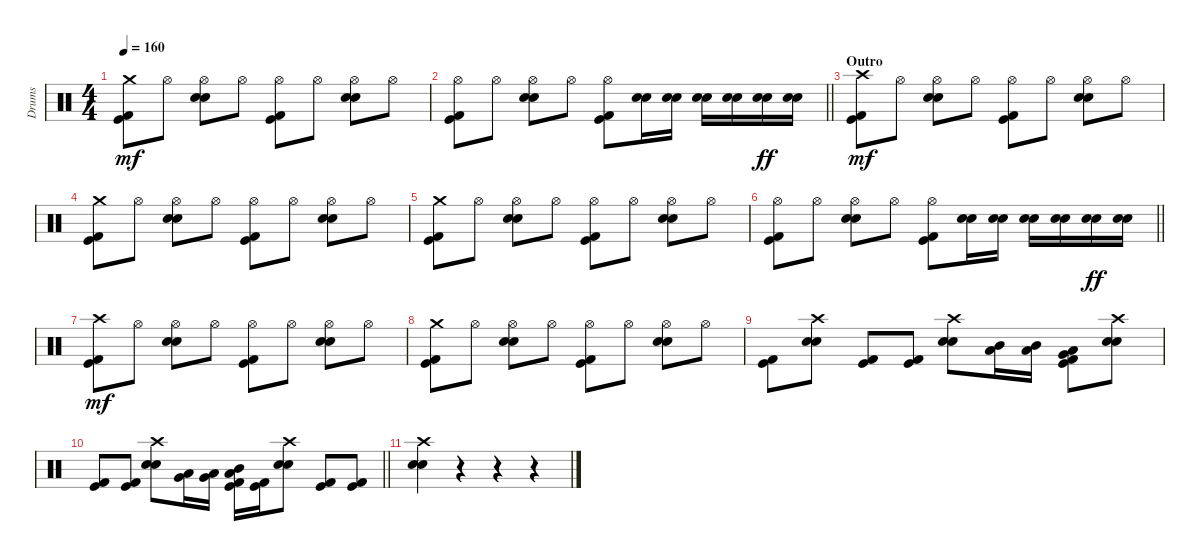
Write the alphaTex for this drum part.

\track ("Drums" "Drums") {instrument percussion}
\staff {score}
\articulation defaults
\ts (4 4)
\tempo 160
\clef neutral
\ks c
("Crash medium (hit)" "Kick (hit) 2" "Kick (hit)").8{dy mf} "Hi-Hat (open)".8 ("Hi-Hat (open)" "Snare (hit) 2" "Electric Snare (hit)").8 "Hi-Hat (open)".8 ("Hi-Hat (open)" "Kick (hit) 2" "Kick (hit)").8 "Hi-Hat (open)".8 ("Hi-Hat (open)" "Snare (hit) 2" "Electric Snare (hit)").8 "Hi-Hat (open)".8 |
\barLineRight lightlight
("Hi-Hat (open)" "Kick (hit) 2" "Kick (hit)").8 "Hi-Hat (open)".8 ("Hi-Hat (open)" "Snare (hit) 2" "Electric Snare (hit)").8 "Hi-Hat (open)".8 ("Hi-Hat (open)" "Kick (hit) 2" "Kick (hit)").8 ("Snare (hit) 2" "Electric Snare (hit)").16 ("Snare (hit) 2" "Electric Snare (hit)").16 ("Snare (hit) 2" "Electric Snare (hit)").16 ("Snare (hit) 2" "Electric Snare (hit)").16 ("Snare (hit) 2" "Electric Snare (hit)").16{dy ff} ("Snare (hit) 2" "Electric Snare (hit)").16 |
\section ("" "Outro")
("Crash high (hit)" "Kick (hit) 2" "Kick (hit)").8{dy mf} "Hi-Hat (open)".8 ("Hi-Hat (open)" "Snare (hit) 2" "Electric Snare (hit)").8 "Hi-Hat (open)".8 ("Hi-Hat (open)" "Kick (hit) 2" "Kick (hit)").8 "Hi-Hat (open)".8 ("Hi-Hat (open)" "Snare (hit) 2" "Electric Snare (hit)").8 "Hi-Hat (open)".8 |
("Crash medium (hit)" "Kick (hit) 2" "Kick (hit)").8 "Hi-Hat (open)".8 ("Hi-Hat (open)" "Snare (hit) 2" "Electric Snare (hit)").8 "Hi-Hat (open)".8 ("Hi-Hat (open)" "Kick (hit) 2" "Kick (hit)").8 "Hi-Hat (open)".8 ("Hi-Hat (open)" "Snare (hit) 2" "Electric Snare (hit)").8 "Hi-Hat (open)".8 |
("Crash medium (hit)" "Kick (hit) 2" "Kick (hit)").8 "Hi-Hat (open)".8 ("Hi-Hat (open)" "Snare (hit) 2" "Electric Snare (hit)").8 "Hi-Hat (open)".8 ("Hi-Hat (open)" "Kick (hit) 2" "Kick (hit)").8 "Hi-Hat (open)".8 ("Hi-Hat (open)" "Snare (hit) 2" "Electric Snare (hit)").8 "Hi-Hat (open)".8 |
\barLineRight lightlight
("Hi-Hat (open)" "Kick (hit) 2" "Kick (hit)").8 "Hi-Hat (open)".8 ("Hi-Hat (open)" "Snare (hit) 2" "Electric Snare (hit)").8 "Hi-Hat (open)".8 ("Hi-Hat (open)" "Kick (hit) 2" "Kick (hit)").8 ("Snare (hit) 2" "Electric Snare (hit)").16 ("Snare (hit) 2" "Electric Snare (hit)").16 ("Snare (hit) 2" "Electric Snare (hit)").16 ("Snare (hit) 2" "Electric Snare (hit)").16 ("Snare (hit) 2" "Electric Snare (hit)").16{dy ff} ("Snare (hit) 2" "Electric Snare (hit)").16 |
("Crash high (hit)" "Kick (hit) 2" "Kick (hit)").8{dy mf} "Hi-Hat (open)".8 ("Hi-Hat (open)" "Snare (hit) 2" "Electric Snare (hit)").8 "Hi-Hat (open)".8 ("Hi-Hat (open)" "Kick (hit) 2" "Kick (hit)").8 "Hi-Hat (open)".8 ("Hi-Hat (open)" "Snare (hit) 2" "Electric Snare (hit)").8 "Hi-Hat (open)".8 |
("Crash medium (hit)" "Kick (hit) 2" "Kick (hit)").8 "Hi-Hat (open)".8 ("Hi-Hat (open)" "Snare (hit) 2" "Electric Snare (hit)").8 "Hi-Hat (open)".8 ("Hi-Hat (open)" "Kick (hit) 2" "Kick (hit)").8 "Hi-Hat (open)".8 ("Hi-Hat (open)" "Snare (hit) 2" "Electric Snare (hit)").8 "Hi-Hat (open)".8 |
("Kick (hit) 2" "Kick (hit)").8 ("Crash high (hit)" "Snare (hit) 2" "Electric Snare (hit)").8 ("Kick (hit) 2" "Kick (hit)").8 ("Kick (hit) 2" "Kick (hit)").8 ("Crash high (hit)" "Snare (hit) 2" "Electric Snare (hit)").8 ("Mid Tom (hit)" "Low Tom (hit)").16 ("Mid Tom (hit)" "Low Tom (hit)").16 ("Low Tom (hit)" "Very Low Tom (hit)" "Kick (hit) 2" "Kick (hit)").8 ("Crash high (hit)" "Snare (hit) 2" "Electric Snare (hit)").8 |
\barLineRight lightlight
("Kick (hit) 2" "Kick (hit)").8 ("Kick (hit) 2" "Kick (hit)").8 ("Crash high (hit)" "Snare (hit) 2" "Electric Snare (hit)").8 ("Low Tom (hit)" "Very Low Tom (hit)").16 ("Low Tom (hit)" "Very Low Tom (hit)").16 ("Mid Tom (hit)" "Low Tom (hit)" "Kick (hit) 2" "Kick (hit)").16 ("Kick (hit) 2" "Kick (hit)").16 ("Crash high (hit)" "Snare (hit) 2" "Electric Snare (hit)").8 ("Kick (hit) 2" "Kick (hit)").8 ("Kick (hit) 2" "Kick (hit)").8 |
("Crash high (hit)" "Snare (hit) 2" "Electric Snare (hit)").4 r.4 r.4 r.4
